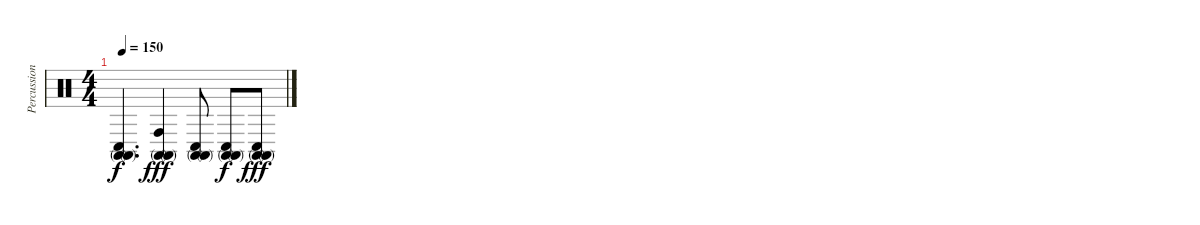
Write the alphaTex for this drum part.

\track ("Percussion2" "Percussion") {instrument percussion}
\staff {score}
\articulation defaults
\ts (4 4)
\tempo 150
\clef neutral
\ks aminor
("Conga high (mute)" "Conga high (mute)" "Conga low (hit)").4{d dy f} ("Conga high (mute)" "Conga high (mute)" "Conga high (hit)").4{dy fff} ("Conga high (mute)" "Conga high (mute)" "Conga low (hit)").8 ("Conga high (mute)" "Conga high (mute)" "Conga low (hit)").8{dy f} ("Conga high (mute)" "Conga high (mute)" "Conga low (hit)").8{dy fff}
